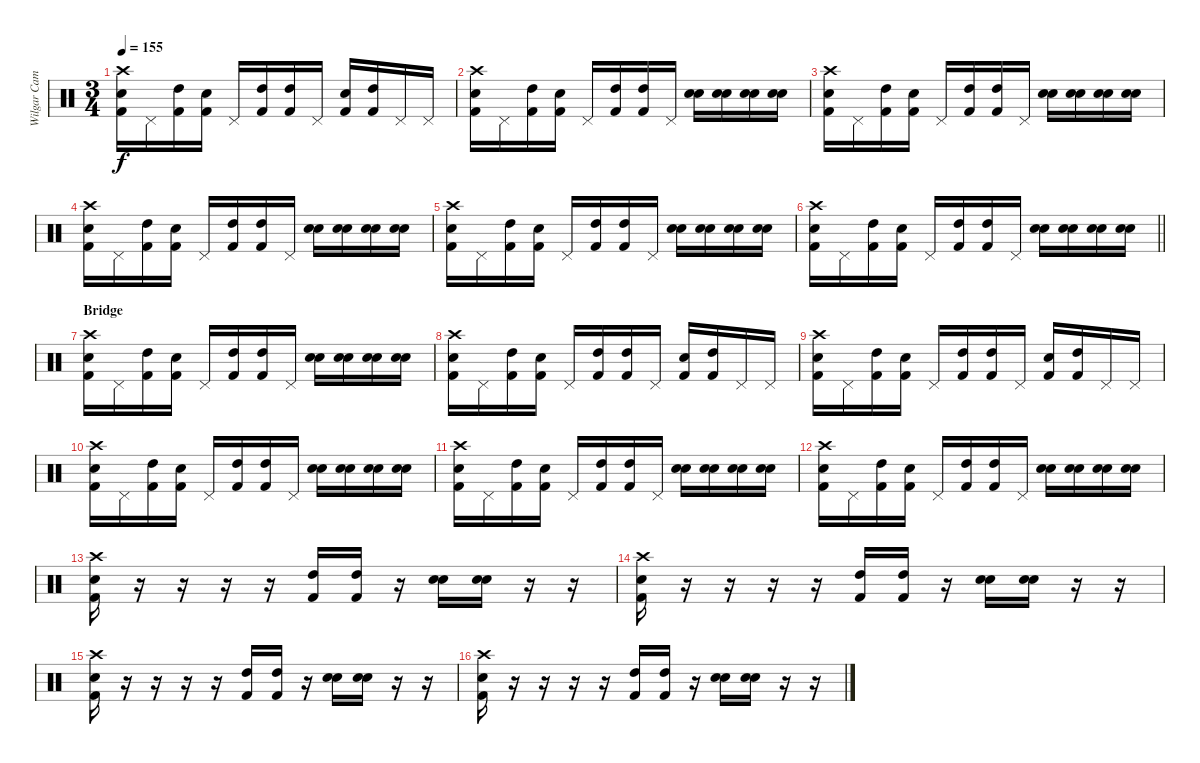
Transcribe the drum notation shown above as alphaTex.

\track ("Wilgar Campbell" "Wilgar Cam") {instrument percussion}
\staff {score}
\articulation defaults
\ts (3 4)
\tempo 155
\clef neutral
\ks c
("Kick (hit) 2" "Snare (hit) 2" "Crash high (hit)").16{dy f} "Pedal Hi-Hat (hit)".16 ("Kick (hit) 2" "High Tom (hit)").16 ("Kick (hit) 2" "Snare (hit) 2").16 "Pedal Hi-Hat (hit)".16 ("High Tom (hit)" "Kick (hit) 2").16 ("High Tom (hit)" "Kick (hit) 2").16 "Pedal Hi-Hat (hit)".16 ("Electric Snare (hit)" "Kick (hit) 2").16 ("High Tom (hit)" "Kick (hit) 2").16 "Pedal Hi-Hat (hit)".16 "Pedal Hi-Hat (hit)".16 |
("Kick (hit) 2" "Snare (hit) 2" "Crash high (hit)").16 "Pedal Hi-Hat (hit)".16 ("Kick (hit) 2" "High Tom (hit)").16 ("Kick (hit) 2" "Snare (hit) 2").16 "Pedal Hi-Hat (hit)".16 ("High Tom (hit)" "Kick (hit) 2").16 ("High Tom (hit)" "Kick (hit) 2").16 "Pedal Hi-Hat (hit)".16 ("Electric Snare (hit)" "Electric Snare (hit)").16 ("Electric Snare (hit)" "Electric Snare (hit)").16 ("Electric Snare (hit)" "Electric Snare (hit)").16 ("Electric Snare (hit)" "Electric Snare (hit)").16 |
("Kick (hit) 2" "Snare (hit) 2" "Crash high (hit)").16 "Pedal Hi-Hat (hit)".16 ("Kick (hit) 2" "High Tom (hit)").16 ("Kick (hit) 2" "Snare (hit) 2").16 "Pedal Hi-Hat (hit)".16 ("High Tom (hit)" "Kick (hit) 2").16 ("High Tom (hit)" "Kick (hit) 2").16 "Pedal Hi-Hat (hit)".16 ("Electric Snare (hit)" "Electric Snare (hit)").16 ("Electric Snare (hit)" "Electric Snare (hit)").16 ("Electric Snare (hit)" "Electric Snare (hit)").16 ("Electric Snare (hit)" "Electric Snare (hit)").16 |
("Kick (hit) 2" "Snare (hit) 2" "Crash high (hit)").16 "Pedal Hi-Hat (hit)".16 ("Kick (hit) 2" "High Tom (hit)").16 ("Kick (hit) 2" "Snare (hit) 2").16 "Pedal Hi-Hat (hit)".16 ("High Tom (hit)" "Kick (hit) 2").16 ("High Tom (hit)" "Kick (hit) 2").16 "Pedal Hi-Hat (hit)".16 ("Electric Snare (hit)" "Electric Snare (hit)").16 ("Electric Snare (hit)" "Electric Snare (hit)").16 ("Electric Snare (hit)" "Electric Snare (hit)").16 ("Electric Snare (hit)" "Electric Snare (hit)").16 |
("Kick (hit) 2" "Snare (hit) 2" "Crash high (hit)").16 "Pedal Hi-Hat (hit)".16 ("Kick (hit) 2" "High Tom (hit)").16 ("Kick (hit) 2" "Snare (hit) 2").16 "Pedal Hi-Hat (hit)".16 ("High Tom (hit)" "Kick (hit) 2").16 ("High Tom (hit)" "Kick (hit) 2").16 "Pedal Hi-Hat (hit)".16 ("Electric Snare (hit)" "Electric Snare (hit)").16 ("Electric Snare (hit)" "Electric Snare (hit)").16 ("Electric Snare (hit)" "Electric Snare (hit)").16 ("Electric Snare (hit)" "Electric Snare (hit)").16 |
\barLineRight lightlight
("Kick (hit) 2" "Snare (hit) 2" "Crash high (hit)").16 "Pedal Hi-Hat (hit)".16 ("Kick (hit) 2" "High Tom (hit)").16 ("Kick (hit) 2" "Snare (hit) 2").16 "Pedal Hi-Hat (hit)".16 ("High Tom (hit)" "Kick (hit) 2").16 ("High Tom (hit)" "Kick (hit) 2").16 "Pedal Hi-Hat (hit)".16 ("Electric Snare (hit)" "Electric Snare (hit)").16 ("Electric Snare (hit)" "Electric Snare (hit)").16 ("Electric Snare (hit)" "Electric Snare (hit)").16 ("Electric Snare (hit)" "Electric Snare (hit)").16 |
\section ("" "Bridge")
("Kick (hit) 2" "Snare (hit) 2" "Crash high (hit)").16 "Pedal Hi-Hat (hit)".16 ("Kick (hit) 2" "High Tom (hit)").16 ("Kick (hit) 2" "Snare (hit) 2").16 "Pedal Hi-Hat (hit)".16 ("High Tom (hit)" "Kick (hit) 2").16 ("High Tom (hit)" "Kick (hit) 2").16 "Pedal Hi-Hat (hit)".16 ("Electric Snare (hit)" "Electric Snare (hit)").16 ("Electric Snare (hit)" "Electric Snare (hit)").16 ("Electric Snare (hit)" "Electric Snare (hit)").16 ("Electric Snare (hit)" "Electric Snare (hit)").16 |
("Kick (hit) 2" "Snare (hit) 2" "Crash high (hit)").16 "Pedal Hi-Hat (hit)".16 ("Kick (hit) 2" "High Tom (hit)").16 ("Kick (hit) 2" "Snare (hit) 2").16 "Pedal Hi-Hat (hit)".16 ("High Tom (hit)" "Kick (hit) 2").16 ("High Tom (hit)" "Kick (hit) 2").16 "Pedal Hi-Hat (hit)".16 ("Electric Snare (hit)" "Kick (hit) 2").16 ("High Tom (hit)" "Kick (hit) 2").16 "Pedal Hi-Hat (hit)".16 "Pedal Hi-Hat (hit)".16 |
("Kick (hit) 2" "Snare (hit) 2" "Crash high (hit)").16 "Pedal Hi-Hat (hit)".16 ("Kick (hit) 2" "High Tom (hit)").16 ("Kick (hit) 2" "Snare (hit) 2").16 "Pedal Hi-Hat (hit)".16 ("High Tom (hit)" "Kick (hit) 2").16 ("High Tom (hit)" "Kick (hit) 2").16 "Pedal Hi-Hat (hit)".16 ("Electric Snare (hit)" "Kick (hit) 2").16 ("High Tom (hit)" "Kick (hit) 2").16 "Pedal Hi-Hat (hit)".16 "Pedal Hi-Hat (hit)".16 |
("Kick (hit) 2" "Snare (hit) 2" "Crash high (hit)").16 "Pedal Hi-Hat (hit)".16 ("Kick (hit) 2" "High Tom (hit)").16 ("Kick (hit) 2" "Snare (hit) 2").16 "Pedal Hi-Hat (hit)".16 ("High Tom (hit)" "Kick (hit) 2").16 ("High Tom (hit)" "Kick (hit) 2").16 "Pedal Hi-Hat (hit)".16 ("Electric Snare (hit)" "Electric Snare (hit)").16 ("Electric Snare (hit)" "Electric Snare (hit)").16 ("Electric Snare (hit)" "Electric Snare (hit)").16 ("Electric Snare (hit)" "Electric Snare (hit)").16 |
("Kick (hit) 2" "Snare (hit) 2" "Crash high (hit)").16 "Pedal Hi-Hat (hit)".16 ("Kick (hit) 2" "High Tom (hit)").16 ("Kick (hit) 2" "Snare (hit) 2").16 "Pedal Hi-Hat (hit)".16 ("High Tom (hit)" "Kick (hit) 2").16 ("High Tom (hit)" "Kick (hit) 2").16 "Pedal Hi-Hat (hit)".16 ("Electric Snare (hit)" "Electric Snare (hit)").16 ("Electric Snare (hit)" "Electric Snare (hit)").16 ("Electric Snare (hit)" "Electric Snare (hit)").16 ("Electric Snare (hit)" "Electric Snare (hit)").16 |
("Kick (hit) 2" "Snare (hit) 2" "Crash high (hit)").16 "Pedal Hi-Hat (hit)".16 ("Kick (hit) 2" "High Tom (hit)").16 ("Kick (hit) 2" "Snare (hit) 2").16 "Pedal Hi-Hat (hit)".16 ("High Tom (hit)" "Kick (hit) 2").16 ("High Tom (hit)" "Kick (hit) 2").16 "Pedal Hi-Hat (hit)".16 ("Electric Snare (hit)" "Electric Snare (hit)").16 ("Electric Snare (hit)" "Electric Snare (hit)").16 ("Electric Snare (hit)" "Electric Snare (hit)").16 ("Electric Snare (hit)" "Electric Snare (hit)").16 |
("Kick (hit) 2" "Snare (hit) 2" "Crash high (hit)").16 r.16 r.16 r.16 r.16 ("High Tom (hit)" "Kick (hit) 2").16 ("High Tom (hit)" "Kick (hit) 2").16 r.16 ("Electric Snare (hit)" "Electric Snare (hit)").16 ("Electric Snare (hit)" "Electric Snare (hit)").16 r.16 r.16 |
("Kick (hit) 2" "Snare (hit) 2" "Crash high (hit)").16 r.16 r.16 r.16 r.16 ("High Tom (hit)" "Kick (hit) 2").16 ("High Tom (hit)" "Kick (hit) 2").16 r.16 ("Electric Snare (hit)" "Electric Snare (hit)").16 ("Electric Snare (hit)" "Electric Snare (hit)").16 r.16 r.16 |
("Kick (hit) 2" "Snare (hit) 2" "Crash high (hit)").16 r.16 r.16 r.16 r.16 ("High Tom (hit)" "Kick (hit) 2").16 ("High Tom (hit)" "Kick (hit) 2").16 r.16 ("Electric Snare (hit)" "Electric Snare (hit)").16 ("Electric Snare (hit)" "Electric Snare (hit)").16 r.16 r.16 |
("Kick (hit) 2" "Snare (hit) 2" "Crash high (hit)").16 r.16 r.16 r.16 r.16 ("High Tom (hit)" "Kick (hit) 2").16 ("High Tom (hit)" "Kick (hit) 2").16 r.16 ("Electric Snare (hit)" "Electric Snare (hit)").16 ("Electric Snare (hit)" "Electric Snare (hit)").16 r.16 r.16
